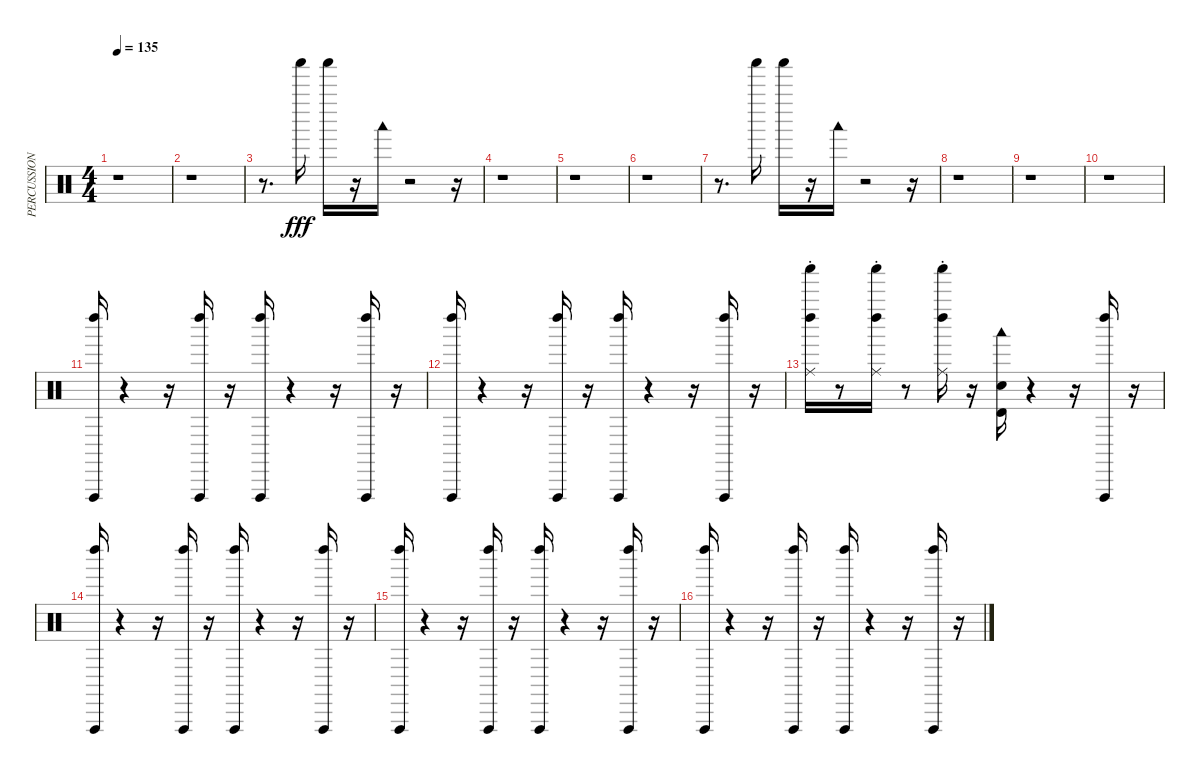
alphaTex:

\track ("PERCUSSION" "PERCUSSION") {instrument percussion}
\staff {score}
\articulation defaults
\ts (4 4)
\tempo 135
\clef neutral
\ks c
r.1{dy fff} |
r.1 |
r.8{d} "Shaker (hit)".16 "Shaker (hit)".16 r.16 "Woodblock low (hit)".16 r.2 r.16 |
r.1 |
r.1 |
r.1 |
r.8{d} "Shaker (hit)".16 "Shaker (hit)".16 r.16 "Woodblock low (hit)".16 r.2 r.16 |
r.1 |
r.1 |
r.1 |
("Vibraslap (hit)" "Left Maraca (hit)").16 r.4 r.16 ("Left Maraca (hit)" "Vibraslap (hit)").16 r.16 ("Vibraslap (hit)" "Left Maraca (hit)").16 r.4 r.16 ("Vibraslap (hit)" "Left Maraca (hit)").16 r.16 |
("Vibraslap (hit)" "Left Maraca (hit)").16 r.4 r.16 ("Left Maraca (hit)" "Vibraslap (hit)").16 r.16 ("Vibraslap (hit)" "Left Maraca (hit)").16 r.4 r.16 ("Vibraslap (hit)" "Left Maraca (hit)").16 r.16 |
("Left Maraca (hit)" "Shaker (hit)" "Ride (choke)").16{volume 12} r.8 ("Left Maraca (hit)" "Shaker (hit)" "Ride (choke)").16 r.8 ("Left Maraca (hit)" "Shaker (hit)" "Ride (choke)").16 r.16 ("Timbale high (hit)" "Woodblock low (hit)" "Snare (hit)").16 r.4 r.16 ("Vibraslap (hit)" "Left Maraca (hit)").16{volume 11} r.16 |
("Vibraslap (hit)" "Left Maraca (hit)").16 r.4 r.16 ("Left Maraca (hit)" "Vibraslap (hit)").16 r.16 ("Vibraslap (hit)" "Left Maraca (hit)").16 r.4 r.16 ("Vibraslap (hit)" "Left Maraca (hit)").16 r.16 |
("Vibraslap (hit)" "Left Maraca (hit)").16 r.4 r.16 ("Left Maraca (hit)" "Vibraslap (hit)").16 r.16 ("Vibraslap (hit)" "Left Maraca (hit)").16 r.4 r.16 ("Vibraslap (hit)" "Left Maraca (hit)").16 r.16 |
("Vibraslap (hit)" "Left Maraca (hit)").16 r.4 r.16 ("Left Maraca (hit)" "Vibraslap (hit)").16 r.16 ("Vibraslap (hit)" "Left Maraca (hit)").16 r.4 r.16 ("Vibraslap (hit)" "Left Maraca (hit)").16 r.16
